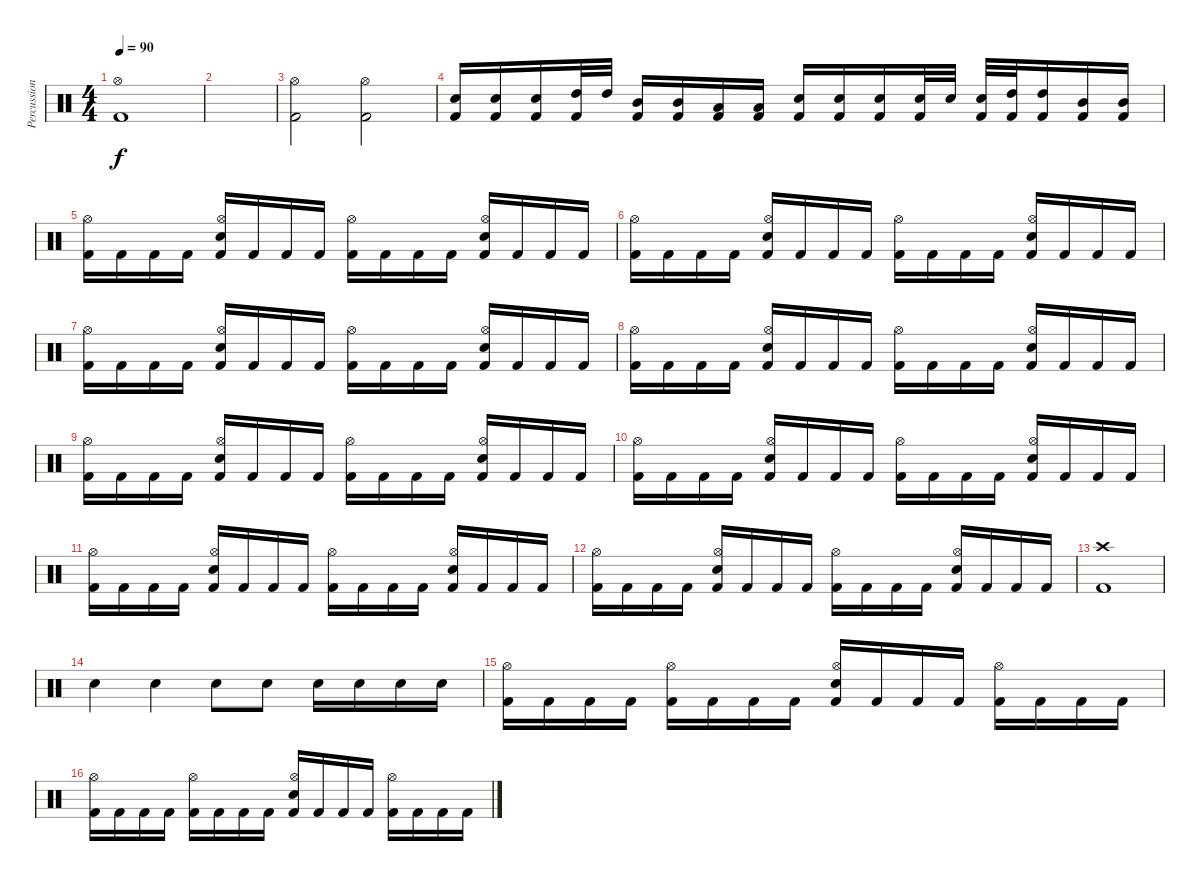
\track ("Percussion" "Percussion") {instrument percussion}
\staff {score}
\articulation defaults
\ts (4 4)
\tempo 90
\clef neutral
\ks c
("Kick (hit) 2" "Hi-Hat (open)").1{dy f} |
|
("Kick (hit) 2" "Hi-Hat (open)").2 ("Kick (hit) 2" "Hi-Hat (open)").2 |
("Kick (hit) 2" "Electric Snare (hit)").16 ("Kick (hit) 2" "Electric Snare (hit)").16 ("Kick (hit) 2" "Electric Snare (hit)").16 ("Kick (hit) 2" "High Tom (hit)").32 "High Tom (hit)".32 ("Kick (hit) 2" "Mid Tom (hit)").16 ("Kick (hit) 2" "Mid Tom (hit)").16 ("Kick (hit) 2" "Low Tom (hit)").16 ("Kick (hit) 2" "Low Tom (hit)").16 ("Kick (hit) 2" "Electric Snare (hit)").16 ("Kick (hit) 2" "Electric Snare (hit)").16 ("Kick (hit) 2" "Electric Snare (hit)").16 ("Kick (hit) 2" "Electric Snare (hit)").32 "Electric Snare (hit)".32 ("Kick (hit) 2" "Electric Snare (hit)").32 ("Kick (hit) 2" "High Tom (hit)").32 ("Kick (hit) 2" "High Tom (hit)").16 ("Kick (hit) 2" "Mid Tom (hit)").16 ("Kick (hit) 2" "Mid Tom (hit)").16 |
("Kick (hit) 2" "Hi-Hat (open)").16 "Kick (hit) 2".16 "Kick (hit) 2".16 "Kick (hit) 2".16 ("Kick (hit) 2" "Hi-Hat (open)" "Electric Snare (hit)").16 "Kick (hit) 2".16 "Kick (hit) 2".16 "Kick (hit) 2".16 ("Kick (hit) 2" "Hi-Hat (open)").16 "Kick (hit) 2".16 "Kick (hit) 2".16 "Kick (hit) 2".16 ("Kick (hit) 2" "Hi-Hat (open)" "Electric Snare (hit)").16 "Kick (hit) 2".16 "Kick (hit) 2".16 "Kick (hit) 2".16 |
("Kick (hit) 2" "Hi-Hat (open)").16 "Kick (hit) 2".16 "Kick (hit) 2".16 "Kick (hit) 2".16 ("Kick (hit) 2" "Hi-Hat (open)" "Electric Snare (hit)").16 "Kick (hit) 2".16 "Kick (hit) 2".16 "Kick (hit) 2".16 ("Kick (hit) 2" "Hi-Hat (open)").16 "Kick (hit) 2".16 "Kick (hit) 2".16 "Kick (hit) 2".16 ("Kick (hit) 2" "Hi-Hat (open)" "Electric Snare (hit)").16 "Kick (hit) 2".16 "Kick (hit) 2".16 "Kick (hit) 2".16 |
("Kick (hit) 2" "Hi-Hat (open)").16 "Kick (hit) 2".16 "Kick (hit) 2".16 "Kick (hit) 2".16 ("Kick (hit) 2" "Hi-Hat (open)" "Electric Snare (hit)").16 "Kick (hit) 2".16 "Kick (hit) 2".16 "Kick (hit) 2".16 ("Kick (hit) 2" "Hi-Hat (open)").16 "Kick (hit) 2".16 "Kick (hit) 2".16 "Kick (hit) 2".16 ("Kick (hit) 2" "Hi-Hat (open)" "Electric Snare (hit)").16 "Kick (hit) 2".16 "Kick (hit) 2".16 "Kick (hit) 2".16 |
("Kick (hit) 2" "Hi-Hat (open)").16 "Kick (hit) 2".16 "Kick (hit) 2".16 "Kick (hit) 2".16 ("Kick (hit) 2" "Hi-Hat (open)" "Electric Snare (hit)").16 "Kick (hit) 2".16 "Kick (hit) 2".16 "Kick (hit) 2".16 ("Kick (hit) 2" "Hi-Hat (open)").16 "Kick (hit) 2".16 "Kick (hit) 2".16 "Kick (hit) 2".16 ("Kick (hit) 2" "Hi-Hat (open)" "Electric Snare (hit)").16 "Kick (hit) 2".16 "Kick (hit) 2".16 "Kick (hit) 2".16 |
("Kick (hit) 2" "Hi-Hat (open)").16 "Kick (hit) 2".16 "Kick (hit) 2".16 "Kick (hit) 2".16 ("Kick (hit) 2" "Hi-Hat (open)" "Electric Snare (hit)").16 "Kick (hit) 2".16 "Kick (hit) 2".16 "Kick (hit) 2".16 ("Kick (hit) 2" "Hi-Hat (open)").16 "Kick (hit) 2".16 "Kick (hit) 2".16 "Kick (hit) 2".16 ("Kick (hit) 2" "Hi-Hat (open)" "Electric Snare (hit)").16 "Kick (hit) 2".16 "Kick (hit) 2".16 "Kick (hit) 2".16 |
("Kick (hit) 2" "Hi-Hat (open)").16 "Kick (hit) 2".16 "Kick (hit) 2".16 "Kick (hit) 2".16 ("Kick (hit) 2" "Hi-Hat (open)" "Electric Snare (hit)").16 "Kick (hit) 2".16 "Kick (hit) 2".16 "Kick (hit) 2".16 ("Kick (hit) 2" "Hi-Hat (open)").16 "Kick (hit) 2".16 "Kick (hit) 2".16 "Kick (hit) 2".16 ("Kick (hit) 2" "Hi-Hat (open)" "Electric Snare (hit)").16 "Kick (hit) 2".16 "Kick (hit) 2".16 "Kick (hit) 2".16 |
("Kick (hit) 2" "Hi-Hat (open)").16 "Kick (hit) 2".16 "Kick (hit) 2".16 "Kick (hit) 2".16 ("Kick (hit) 2" "Hi-Hat (open)" "Electric Snare (hit)").16 "Kick (hit) 2".16 "Kick (hit) 2".16 "Kick (hit) 2".16 ("Kick (hit) 2" "Hi-Hat (open)").16 "Kick (hit) 2".16 "Kick (hit) 2".16 "Kick (hit) 2".16 ("Kick (hit) 2" "Hi-Hat (open)" "Electric Snare (hit)").16 "Kick (hit) 2".16 "Kick (hit) 2".16 "Kick (hit) 2".16 |
("Kick (hit) 2" "Hi-Hat (open)").16 "Kick (hit) 2".16 "Kick (hit) 2".16 "Kick (hit) 2".16 ("Kick (hit) 2" "Hi-Hat (open)" "Electric Snare (hit)").16 "Kick (hit) 2".16 "Kick (hit) 2".16 "Kick (hit) 2".16 ("Kick (hit) 2" "Hi-Hat (open)").16 "Kick (hit) 2".16 "Kick (hit) 2".16 "Kick (hit) 2".16 ("Kick (hit) 2" "Hi-Hat (open)" "Electric Snare (hit)").16 "Kick (hit) 2".16 "Kick (hit) 2".16 "Kick (hit) 2".16 |
("Crash high (hit)" "Kick (hit) 2").1 |
"Electric Snare (hit)".4 "Electric Snare (hit)".4 "Electric Snare (hit)".8 "Electric Snare (hit)".8 "Electric Snare (hit)".16 "Electric Snare (hit)".16 "Electric Snare (hit)".16 "Electric Snare (hit)".16 |
("Kick (hit) 2" "Hi-Hat (open)").16 "Kick (hit) 2".16 "Kick (hit) 2".16 "Kick (hit) 2".16 ("Kick (hit) 2" "Hi-Hat (open)").16 "Kick (hit) 2".16 "Kick (hit) 2".16 "Kick (hit) 2".16 ("Kick (hit) 2" "Hi-Hat (open)" "Electric Snare (hit)").16 "Kick (hit) 2".16 "Kick (hit) 2".16 "Kick (hit) 2".16 ("Kick (hit) 2" "Hi-Hat (open)").16 "Kick (hit) 2".16 "Kick (hit) 2".16 "Kick (hit) 2".16 |
("Kick (hit) 2" "Hi-Hat (open)").16 "Kick (hit) 2".16 "Kick (hit) 2".16 "Kick (hit) 2".16 ("Kick (hit) 2" "Hi-Hat (open)").16 "Kick (hit) 2".16 "Kick (hit) 2".16 "Kick (hit) 2".16 ("Kick (hit) 2" "Hi-Hat (open)" "Electric Snare (hit)").16 "Kick (hit) 2".16 "Kick (hit) 2".16 "Kick (hit) 2".16 ("Kick (hit) 2" "Hi-Hat (open)").16 "Kick (hit) 2".16 "Kick (hit) 2".16 "Kick (hit) 2".16
